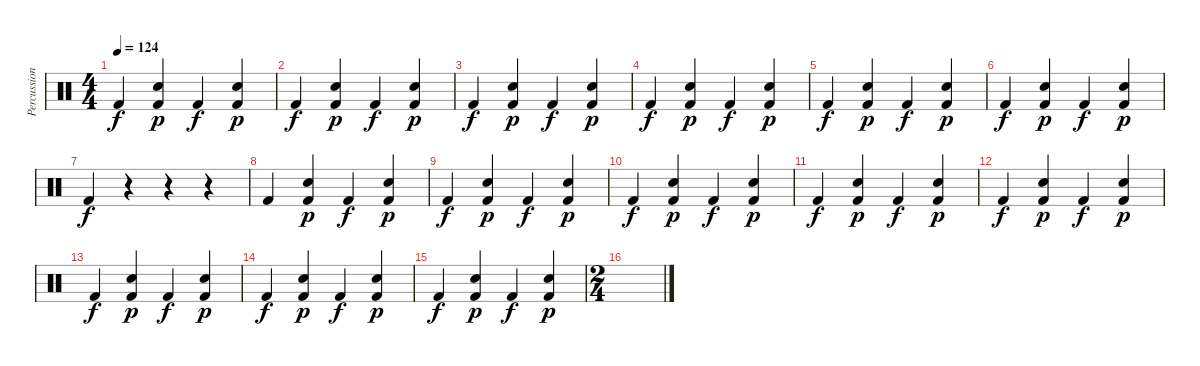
\track ("Percussion" "Percussion") {instrument percussion}
\staff {score}
\articulation defaults
\ts (4 4)
\tempo 124
\clef neutral
\ks c "Kick (hit) 2".4{dy f}
("Snare (hit) 2" "Kick (hit) 2").4{dy p} "Kick (hit) 2".4{dy f} ("Snare (hit) 2" "Kick (hit) 2").4{dy p} |
"Kick (hit) 2".4{dy f} ("Snare (hit) 2" "Kick (hit) 2").4{dy p} "Kick (hit) 2".4{dy f} ("Snare (hit) 2" "Kick (hit) 2").4{dy p} |
"Kick (hit) 2".4{dy f} ("Snare (hit) 2" "Kick (hit) 2").4{dy p} "Kick (hit) 2".4{dy f} ("Snare (hit) 2" "Kick (hit) 2").4{dy p} |
"Kick (hit) 2".4{dy f} ("Snare (hit) 2" "Kick (hit) 2").4{dy p} "Kick (hit) 2".4{dy f} ("Snare (hit) 2" "Kick (hit) 2").4{dy p} |
"Kick (hit) 2".4{dy f} ("Snare (hit) 2" "Kick (hit) 2").4{dy p} "Kick (hit) 2".4{dy f} ("Snare (hit) 2" "Kick (hit) 2").4{dy p} |
"Kick (hit) 2".4{dy f} ("Snare (hit) 2" "Kick (hit) 2").4{dy p} "Kick (hit) 2".4{dy f} ("Snare (hit) 2" "Kick (hit) 2").4{dy p} |
"Kick (hit) 2".4{dy f} r.4 r.4 r.4 |
"Kick (hit) 2".4 ("Snare (hit) 2" "Kick (hit) 2").4{dy p} "Kick (hit) 2".4{dy f} ("Snare (hit) 2" "Kick (hit) 2").4{dy p} |
"Kick (hit) 2".4{dy f} ("Snare (hit) 2" "Kick (hit) 2").4{dy p} "Kick (hit) 2".4{dy f} ("Snare (hit) 2" "Kick (hit) 2").4{dy p} |
"Kick (hit) 2".4{dy f} ("Snare (hit) 2" "Kick (hit) 2").4{dy p} "Kick (hit) 2".4{dy f} ("Snare (hit) 2" "Kick (hit) 2").4{dy p} |
"Kick (hit) 2".4{dy f} ("Snare (hit) 2" "Kick (hit) 2").4{dy p} "Kick (hit) 2".4{dy f} ("Snare (hit) 2" "Kick (hit) 2").4{dy p} |
"Kick (hit) 2".4{dy f} ("Snare (hit) 2" "Kick (hit) 2").4{dy p} "Kick (hit) 2".4{dy f} ("Snare (hit) 2" "Kick (hit) 2").4{dy p} |
"Kick (hit) 2".4{dy f} ("Snare (hit) 2" "Kick (hit) 2").4{dy p} "Kick (hit) 2".4{dy f} ("Snare (hit) 2" "Kick (hit) 2").4{dy p} |
"Kick (hit) 2".4{dy f} ("Snare (hit) 2" "Kick (hit) 2").4{dy p} "Kick (hit) 2".4{dy f} ("Snare (hit) 2" "Kick (hit) 2").4{dy p} |
"Kick (hit) 2".4{dy f} ("Snare (hit) 2" "Kick (hit) 2").4{dy p} "Kick (hit) 2".4{dy f} ("Snare (hit) 2" "Kick (hit) 2").4{dy p} |
\ts (2 4)
